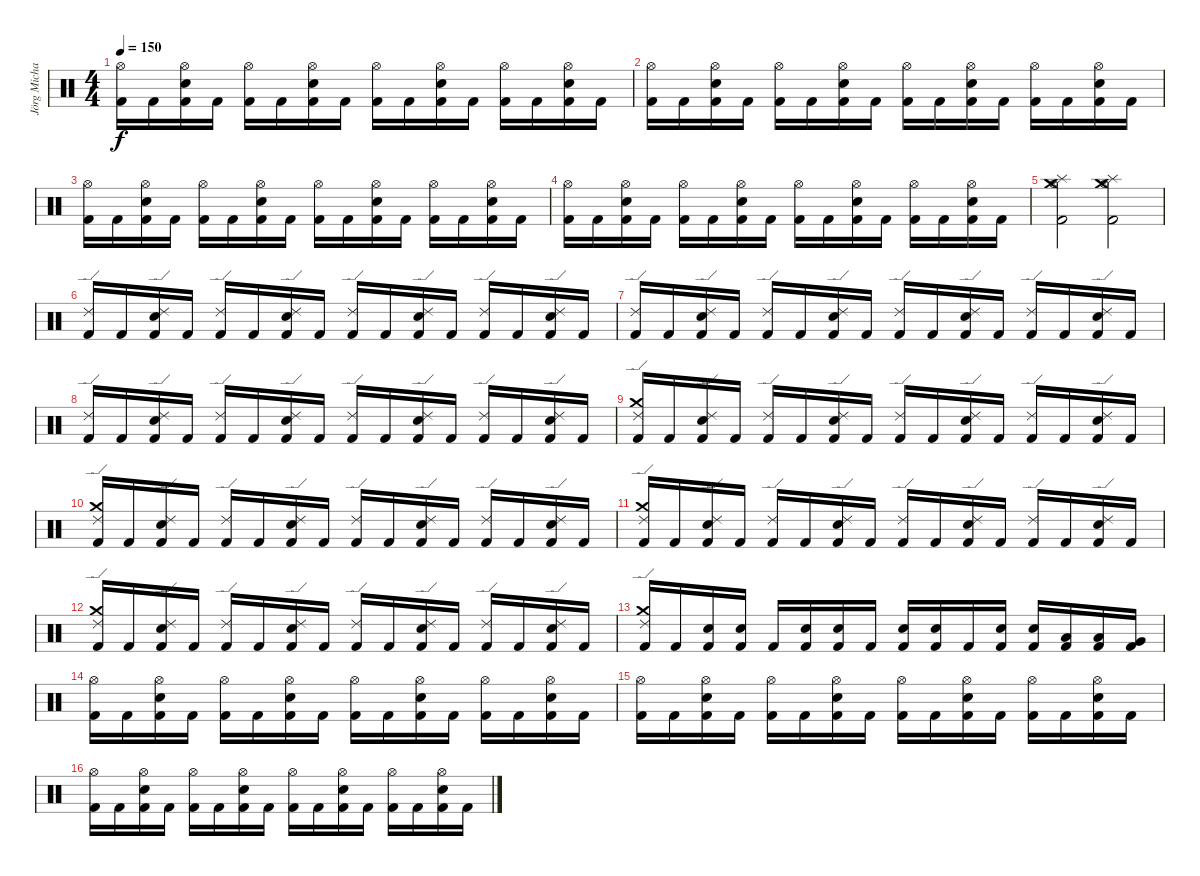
\track ("Jörg Michael (Drums)" "Jörg Micha") {instrument percussion}
\staff {score}
\articulation defaults
\ts (4 4)
\tempo 150
\clef neutral
\ks c
("Kick (hit) 2" "Hi-Hat (open)").16{dy f} "Kick (hit) 2".16 ("Kick (hit) 2" "Electric Snare (hit)" "Hi-Hat (open)").16 "Kick (hit) 2".16 ("Kick (hit) 2" "Hi-Hat (open)").16 "Kick (hit) 2".16 ("Kick (hit) 2" "Electric Snare (hit)" "Hi-Hat (open)").16 "Kick (hit) 2".16 ("Kick (hit) 2" "Hi-Hat (open)").16 "Kick (hit) 2".16 ("Kick (hit) 2" "Electric Snare (hit)" "Hi-Hat (open)").16 "Kick (hit) 2".16 ("Kick (hit) 2" "Hi-Hat (open)").16 "Kick (hit) 2".16 ("Kick (hit) 2" "Electric Snare (hit)" "Hi-Hat (open)").16 "Kick (hit) 2".16 |
("Kick (hit) 2" "Hi-Hat (open)").16 "Kick (hit) 2".16 ("Kick (hit) 2" "Electric Snare (hit)" "Hi-Hat (open)").16 "Kick (hit) 2".16 ("Kick (hit) 2" "Hi-Hat (open)").16 "Kick (hit) 2".16 ("Kick (hit) 2" "Electric Snare (hit)" "Hi-Hat (open)").16 "Kick (hit) 2".16 ("Kick (hit) 2" "Hi-Hat (open)").16 "Kick (hit) 2".16 ("Kick (hit) 2" "Electric Snare (hit)" "Hi-Hat (open)").16 "Kick (hit) 2".16 ("Kick (hit) 2" "Hi-Hat (open)").16 "Kick (hit) 2".16 ("Kick (hit) 2" "Electric Snare (hit)" "Hi-Hat (open)").16 "Kick (hit) 2".16 |
("Kick (hit) 2" "Hi-Hat (open)").16 "Kick (hit) 2".16 ("Kick (hit) 2" "Electric Snare (hit)" "Hi-Hat (open)").16 "Kick (hit) 2".16 ("Kick (hit) 2" "Hi-Hat (open)").16 "Kick (hit) 2".16 ("Kick (hit) 2" "Electric Snare (hit)" "Hi-Hat (open)").16 "Kick (hit) 2".16 ("Kick (hit) 2" "Hi-Hat (open)").16 "Kick (hit) 2".16 ("Kick (hit) 2" "Electric Snare (hit)" "Hi-Hat (open)").16 "Kick (hit) 2".16 ("Kick (hit) 2" "Hi-Hat (open)").16 "Kick (hit) 2".16 ("Kick (hit) 2" "Electric Snare (hit)" "Hi-Hat (open)").16 "Kick (hit) 2".16 |
("Kick (hit) 2" "Hi-Hat (open)").16 "Kick (hit) 2".16 ("Kick (hit) 2" "Electric Snare (hit)" "Hi-Hat (open)").16 "Kick (hit) 2".16 ("Kick (hit) 2" "Hi-Hat (open)").16 "Kick (hit) 2".16 ("Kick (hit) 2" "Electric Snare (hit)" "Hi-Hat (open)").16 "Kick (hit) 2".16 ("Kick (hit) 2" "Hi-Hat (open)").16 "Kick (hit) 2".16 ("Kick (hit) 2" "Electric Snare (hit)" "Hi-Hat (open)").16 "Kick (hit) 2".16 ("Kick (hit) 2" "Hi-Hat (open)").16 "Kick (hit) 2".16 ("Kick (hit) 2" "Electric Snare (hit)" "Hi-Hat (open)").16 "Kick (hit) 2".16 |
("Hi-Hat (open)" "Crash medium (hit)" "Splash (hit)" "Kick (hit) 2").2 ("Hi-Hat (open)" "Crash medium (hit)" "Splash (hit)" "Kick (hit) 2").2 |
("Kick (hit) 2" "Ride (edge) 2").16 "Kick (hit) 2".16 ("Kick (hit) 2" "Electric Snare (hit)" "Ride (edge) 2").16 "Kick (hit) 2".16 ("Kick (hit) 2" "Ride (edge) 2").16 "Kick (hit) 2".16 ("Kick (hit) 2" "Electric Snare (hit)" "Ride (edge) 2").16 "Kick (hit) 2".16 ("Kick (hit) 2" "Ride (edge) 2").16 "Kick (hit) 2".16 ("Kick (hit) 2" "Electric Snare (hit)" "Ride (edge) 2").16 "Kick (hit) 2".16 ("Kick (hit) 2" "Ride (edge) 2").16 "Kick (hit) 2".16 ("Kick (hit) 2" "Electric Snare (hit)" "Ride (edge) 2").16 "Kick (hit) 2".16 |
("Kick (hit) 2" "Ride (edge) 2").16 "Kick (hit) 2".16 ("Kick (hit) 2" "Electric Snare (hit)" "Ride (edge) 2").16 "Kick (hit) 2".16 ("Kick (hit) 2" "Ride (edge) 2").16 "Kick (hit) 2".16 ("Kick (hit) 2" "Electric Snare (hit)" "Ride (edge) 2").16 "Kick (hit) 2".16 ("Kick (hit) 2" "Ride (edge) 2").16 "Kick (hit) 2".16 ("Kick (hit) 2" "Electric Snare (hit)" "Ride (edge) 2").16 "Kick (hit) 2".16 ("Kick (hit) 2" "Ride (edge) 2").16 "Kick (hit) 2".16 ("Kick (hit) 2" "Electric Snare (hit)" "Ride (edge) 2").16 "Kick (hit) 2".16 |
("Kick (hit) 2" "Ride (edge) 2").16 "Kick (hit) 2".16 ("Kick (hit) 2" "Electric Snare (hit)" "Ride (edge) 2").16 "Kick (hit) 2".16 ("Kick (hit) 2" "Ride (edge) 2").16 "Kick (hit) 2".16 ("Kick (hit) 2" "Electric Snare (hit)" "Ride (edge) 2").16 "Kick (hit) 2".16 ("Kick (hit) 2" "Ride (edge) 2").16 "Kick (hit) 2".16 ("Kick (hit) 2" "Electric Snare (hit)" "Ride (edge) 2").16 "Kick (hit) 2".16 ("Kick (hit) 2" "Ride (edge) 2").16 "Kick (hit) 2".16 ("Kick (hit) 2" "Electric Snare (hit)" "Ride (edge) 2").16 "Kick (hit) 2".16 |
("Crash medium (hit)" "Kick (hit) 2" "Ride (edge) 2").16 "Kick (hit) 2".16 ("Kick (hit) 2" "Electric Snare (hit)" "Ride (edge) 2").16 "Kick (hit) 2".16 ("Kick (hit) 2" "Ride (edge) 2").16 "Kick (hit) 2".16 ("Kick (hit) 2" "Electric Snare (hit)" "Ride (edge) 2").16 "Kick (hit) 2".16 ("Kick (hit) 2" "Ride (edge) 2").16 "Kick (hit) 2".16 ("Kick (hit) 2" "Electric Snare (hit)" "Ride (edge) 2").16 "Kick (hit) 2".16 ("Kick (hit) 2" "Ride (edge) 2").16 "Kick (hit) 2".16 ("Kick (hit) 2" "Electric Snare (hit)" "Ride (edge) 2").16 "Kick (hit) 2".16 |
("Crash medium (hit)" "Kick (hit) 2" "Ride (edge) 2").16 "Kick (hit) 2".16 ("Kick (hit) 2" "Electric Snare (hit)" "Ride (edge) 2").16 "Kick (hit) 2".16 ("Kick (hit) 2" "Ride (edge) 2").16 "Kick (hit) 2".16 ("Kick (hit) 2" "Electric Snare (hit)" "Ride (edge) 2").16 "Kick (hit) 2".16 ("Kick (hit) 2" "Ride (edge) 2").16 "Kick (hit) 2".16 ("Kick (hit) 2" "Electric Snare (hit)" "Ride (edge) 2").16 "Kick (hit) 2".16 ("Kick (hit) 2" "Ride (edge) 2").16 "Kick (hit) 2".16 ("Kick (hit) 2" "Electric Snare (hit)" "Ride (edge) 2").16 "Kick (hit) 2".16 |
("Crash medium (hit)" "Kick (hit) 2" "Ride (edge) 2").16 "Kick (hit) 2".16 ("Kick (hit) 2" "Electric Snare (hit)" "Ride (edge) 2").16 "Kick (hit) 2".16 ("Kick (hit) 2" "Ride (edge) 2").16 "Kick (hit) 2".16 ("Kick (hit) 2" "Electric Snare (hit)" "Ride (edge) 2").16 "Kick (hit) 2".16 ("Kick (hit) 2" "Ride (edge) 2").16 "Kick (hit) 2".16 ("Kick (hit) 2" "Electric Snare (hit)" "Ride (edge) 2").16 "Kick (hit) 2".16 ("Kick (hit) 2" "Ride (edge) 2").16 "Kick (hit) 2".16 ("Kick (hit) 2" "Electric Snare (hit)" "Ride (edge) 2").16 "Kick (hit) 2".16 |
("Crash medium (hit)" "Kick (hit) 2" "Ride (edge) 2").16 "Kick (hit) 2".16 ("Kick (hit) 2" "Electric Snare (hit)" "Ride (edge) 2").16 "Kick (hit) 2".16 ("Kick (hit) 2" "Ride (edge) 2").16 "Kick (hit) 2".16 ("Kick (hit) 2" "Electric Snare (hit)" "Ride (edge) 2").16 "Kick (hit) 2".16 ("Kick (hit) 2" "Ride (edge) 2").16 "Kick (hit) 2".16 ("Kick (hit) 2" "Electric Snare (hit)" "Ride (edge) 2").16 "Kick (hit) 2".16 ("Kick (hit) 2" "Ride (edge) 2").16 "Kick (hit) 2".16 ("Kick (hit) 2" "Electric Snare (hit)" "Ride (edge) 2").16 "Kick (hit) 2".16 |
("Crash medium (hit)" "Kick (hit) 2" "Ride (edge) 2").16 "Kick (hit) 2".16 ("Electric Snare (hit)" "Kick (hit) 2").16 ("Electric Snare (hit)" "Kick (hit) 2").16 "Kick (hit) 2".16 ("Electric Snare (hit)" "Kick (hit) 2").16 ("Electric Snare (hit)" "Kick (hit) 2").16 "Kick (hit) 2".16 ("Electric Snare (hit)" "Kick (hit) 2").16 ("Electric Snare (hit)" "Kick (hit) 2").16 "Kick (hit) 2".16 ("Electric Snare (hit)" "Kick (hit) 2").16 ("Electric Snare (hit)" "Kick (hit) 2").16 ("Low Tom (hit)" "Kick (hit) 2").16 ("Low Tom (hit)" "Kick (hit) 2").16 ("Very Low Tom (hit)" "Kick (hit) 2").16 |
("Hi-Hat (open)" "Kick (hit) 2").16 "Kick (hit) 2".16 ("Hi-Hat (open)" "Electric Snare (hit)" "Kick (hit) 2").16 "Kick (hit) 2".16 ("Hi-Hat (open)" "Kick (hit) 2").16 "Kick (hit) 2".16 ("Hi-Hat (open)" "Electric Snare (hit)" "Kick (hit) 2").16 "Kick (hit) 2".16 ("Hi-Hat (open)" "Kick (hit) 2").16 "Kick (hit) 2".16 ("Hi-Hat (open)" "Electric Snare (hit)" "Kick (hit) 2").16 "Kick (hit) 2".16 ("Hi-Hat (open)" "Kick (hit) 2").16 "Kick (hit) 2".16 ("Hi-Hat (open)" "Electric Snare (hit)" "Kick (hit) 2").16 "Kick (hit) 2".16 |
("Hi-Hat (open)" "Kick (hit) 2").16 "Kick (hit) 2".16 ("Hi-Hat (open)" "Electric Snare (hit)" "Kick (hit) 2").16 "Kick (hit) 2".16 ("Hi-Hat (open)" "Kick (hit) 2").16 "Kick (hit) 2".16 ("Hi-Hat (open)" "Electric Snare (hit)" "Kick (hit) 2").16 "Kick (hit) 2".16 ("Hi-Hat (open)" "Kick (hit) 2").16 "Kick (hit) 2".16 ("Hi-Hat (open)" "Electric Snare (hit)" "Kick (hit) 2").16 "Kick (hit) 2".16 ("Hi-Hat (open)" "Kick (hit) 2").16 "Kick (hit) 2".16 ("Hi-Hat (open)" "Electric Snare (hit)" "Kick (hit) 2").16 "Kick (hit) 2".16 |
("Hi-Hat (open)" "Kick (hit) 2").16 "Kick (hit) 2".16 ("Hi-Hat (open)" "Electric Snare (hit)" "Kick (hit) 2").16 "Kick (hit) 2".16 ("Hi-Hat (open)" "Kick (hit) 2").16 "Kick (hit) 2".16 ("Hi-Hat (open)" "Electric Snare (hit)" "Kick (hit) 2").16 "Kick (hit) 2".16 ("Hi-Hat (open)" "Kick (hit) 2").16 "Kick (hit) 2".16 ("Hi-Hat (open)" "Electric Snare (hit)" "Kick (hit) 2").16 "Kick (hit) 2".16 ("Hi-Hat (open)" "Kick (hit) 2").16 "Kick (hit) 2".16 ("Hi-Hat (open)" "Electric Snare (hit)" "Kick (hit) 2").16 "Kick (hit) 2".16
